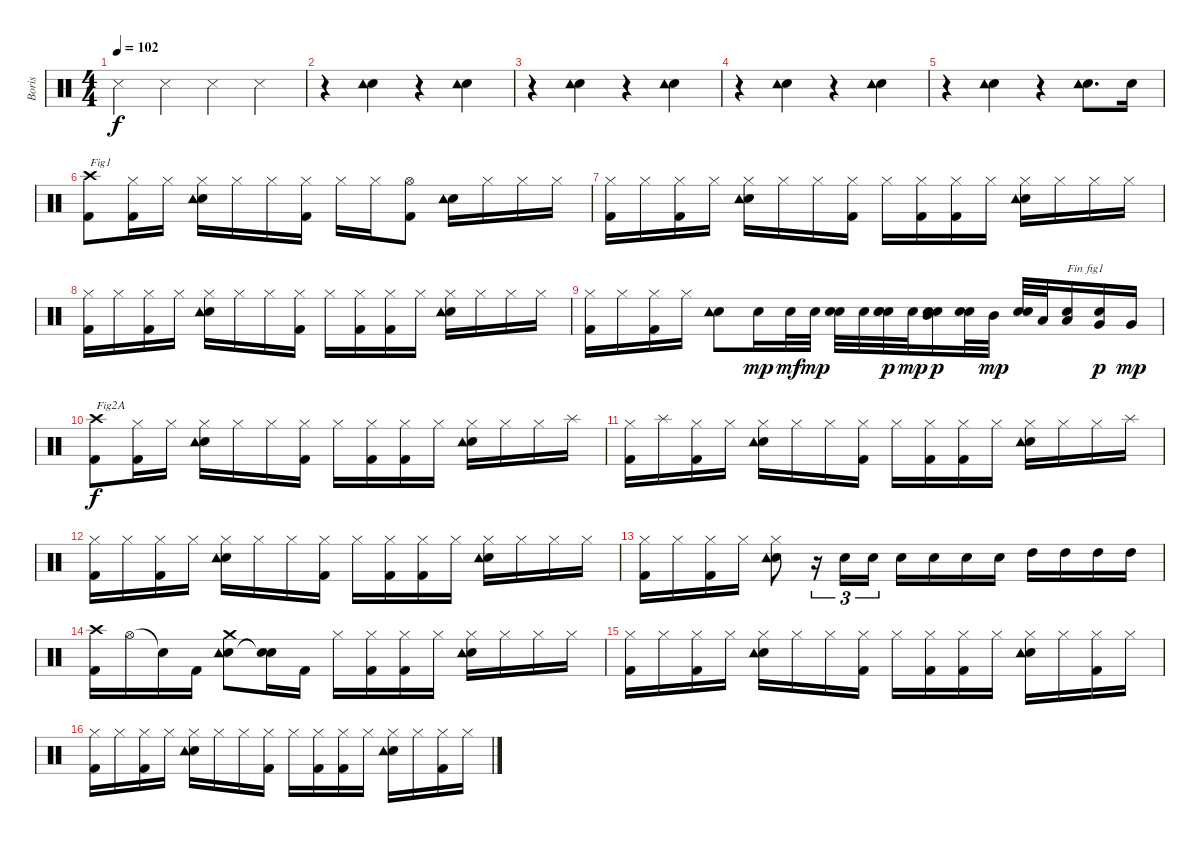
\track ("Boris" "Boris") {instrument percussion}
\staff {score}
\articulation defaults
\ts (4 4)
\tempo 102
\clef neutral
\ks c "Metronome (hit)".4{dy f} "Metronome (hit)".4 "Metronome (hit)".4 "Metronome (hit)".4
|
r.4 ("Electric Snare (hit)" "Tambourine (hit)").4 r.4 ("Electric Snare (hit)" "Tambourine (hit)").4 |
r.4 ("Electric Snare (hit)" "Tambourine (hit)").4 r.4 ("Electric Snare (hit)" "Tambourine (hit)").4 |
r.4 ("Electric Snare (hit)" "Tambourine (hit)").4 r.4 ("Electric Snare (hit)" "Tambourine (hit)").4 |
r.4 ("Electric Snare (hit)" "Tambourine (hit)").4 r.4 ("Electric Snare (hit)" "Tambourine (hit)").8{d} "Electric Snare (hit)".16 |
("Kick (hit) 2" "Crash high (hit)").8{txt "Fig1"} ("Kick (hit) 2" "Hi-Hat (closed)").16 "Hi-Hat (closed)".16 ("Electric Snare (hit)" "Tambourine (hit)" "Hi-Hat (closed)").16 "Hi-Hat (closed)".16 "Hi-Hat (closed)".16 ("Kick (hit) 2" "Hi-Hat (closed)").16 "Hi-Hat (closed)".16 "Hi-Hat (closed)".16 ("Kick (hit) 2" "Hi-Hat (open)").8 ("Electric Snare (hit)" "Tambourine (hit)").16 "Hi-Hat (closed)".16 "Hi-Hat (closed)".16 "Hi-Hat (closed)".16 |
("Kick (hit) 2" "Hi-Hat (closed)").16 "Hi-Hat (closed)".16 ("Kick (hit) 2" "Hi-Hat (closed)").16 "Hi-Hat (closed)".16 ("Electric Snare (hit)" "Tambourine (hit)" "Hi-Hat (closed)").16 "Hi-Hat (closed)".16 "Hi-Hat (closed)".16 ("Kick (hit) 2" "Hi-Hat (closed)").16 "Hi-Hat (closed)".16 ("Kick (hit) 2" "Hi-Hat (closed)").16 ("Kick (hit) 2" "Hi-Hat (closed)").16 "Hi-Hat (closed)".16 ("Electric Snare (hit)" "Tambourine (hit)" "Hi-Hat (closed)").16 "Hi-Hat (closed)".16 "Hi-Hat (closed)".16 "Hi-Hat (closed)".16 |
("Kick (hit) 2" "Hi-Hat (closed)").16 "Hi-Hat (closed)".16 ("Kick (hit) 2" "Hi-Hat (closed)").16 "Hi-Hat (closed)".16 ("Electric Snare (hit)" "Tambourine (hit)" "Hi-Hat (closed)").16 "Hi-Hat (closed)".16 "Hi-Hat (closed)".16 ("Kick (hit) 2" "Hi-Hat (closed)").16 "Hi-Hat (closed)".16 ("Kick (hit) 2" "Hi-Hat (closed)").16 ("Kick (hit) 2" "Hi-Hat (closed)").16 "Hi-Hat (closed)".16 ("Electric Snare (hit)" "Tambourine (hit)" "Hi-Hat (closed)").16 "Hi-Hat (closed)".16 "Hi-Hat (closed)".16 "Hi-Hat (closed)".16 |
("Kick (hit) 2" "Hi-Hat (closed)").16 "Hi-Hat (closed)".16 ("Kick (hit) 2" "Hi-Hat (closed)").16 "Hi-Hat (closed)".16 ("Electric Snare (hit)" "Tambourine (hit)" "Tambourine (hit)").8 "Electric Snare (hit)".16{dy mp} "Electric Snare (hit)".32{dy mf} "Electric Snare (hit)".32{dy mp} ("Electric Snare (hit)" "Electric Snare (hit)").32 "Electric Snare (hit)".32 ("Electric Snare (hit)" "Electric Snare (hit)" "Electric Snare (hit)").32{dy p} "Electric Snare (hit)".32{dy mp} ("Mid Tom (hit)" "Electric Snare (hit)" "Electric Snare (hit)").16{dy p} ("Electric Snare (hit)" "Electric Snare (hit)").32 "Mid Tom (hit)".32{dy mp} ("Electric Snare (hit)" "Electric Snare (hit)").32 "Low Tom (hit)".32 ("Low Tom (hit)" "Electric Snare (hit)").16{txt "Fin fig1"} ("Very Low Tom (hit)" "Electric Snare (hit)").16{dy p} "Very Low Tom (hit)".16{dy mp} |
("Kick (hit) 2" "Crash high (hit)").8{txt "Fig2A" dy f} ("Kick (hit) 2" "Hi-Hat (closed)").16 "Hi-Hat (closed)".16 ("Electric Snare (hit)" "Tambourine (hit)" "Hi-Hat (closed)").16 "Hi-Hat (closed)".16 "Hi-Hat (closed)".16 ("Kick (hit) 2" "Hi-Hat (closed)").16 "Hi-Hat (closed)".16 ("Kick (hit) 2" "Hi-Hat (closed)").16 ("Kick (hit) 2" "Hi-Hat (closed)").16 "Hi-Hat (closed)".16 ("Electric Snare (hit)" "Tambourine (hit)" "Hi-Hat (closed)").16 "Hi-Hat (closed)".16 "Hi-Hat (closed)".16 "Splash (hit)".16 |
("Kick (hit) 2" "Hi-Hat (closed)").16 "Splash (hit)".16 ("Kick (hit) 2" "Hi-Hat (closed)").16 "Hi-Hat (closed)".16 ("Electric Snare (hit)" "Tambourine (hit)" "Hi-Hat (closed)").16 "Hi-Hat (closed)".16 "Hi-Hat (closed)".16 ("Kick (hit) 2" "Hi-Hat (closed)").16 "Hi-Hat (closed)".16 ("Kick (hit) 2" "Hi-Hat (closed)").16 ("Kick (hit) 2" "Hi-Hat (closed)").16 "Hi-Hat (closed)".16 ("Electric Snare (hit)" "Tambourine (hit)" "Hi-Hat (closed)").16 "Hi-Hat (closed)".16 "Hi-Hat (closed)".16 "Splash (hit)".16 |
("Kick (hit) 2" "Hi-Hat (closed)").16 "Hi-Hat (closed)".16 ("Kick (hit) 2" "Hi-Hat (closed)").16 "Hi-Hat (closed)".16 ("Electric Snare (hit)" "Tambourine (hit)" "Hi-Hat (closed)").16 "Hi-Hat (closed)".16 "Hi-Hat (closed)".16 ("Kick (hit) 2" "Hi-Hat (closed)").16 "Hi-Hat (closed)".16 ("Kick (hit) 2" "Hi-Hat (closed)").16 ("Kick (hit) 2" "Hi-Hat (closed)").16 "Hi-Hat (closed)".16 ("Electric Snare (hit)" "Tambourine (hit)" "Hi-Hat (closed)").16 "Hi-Hat (closed)".16 "Hi-Hat (closed)".16 "Hi-Hat (closed)".16 |
("Kick (hit) 2" "Hi-Hat (closed)").16 "Hi-Hat (closed)".16 ("Kick (hit) 2" "Hi-Hat (closed)").16 "Hi-Hat (closed)".16 ("Electric Snare (hit)" "Tambourine (hit)" "Hi-Hat (closed)").8 r.16{tu (3 2)} "Electric Snare (hit)".16{tu (3 2)} "Electric Snare (hit)".16{tu (3 2)} "Electric Snare (hit)".16 "Electric Snare (hit)".16 "Electric Snare (hit)".16 "Electric Snare (hit)".16 "High Tom (hit)".16 "High Tom (hit)".16 "High Tom (hit)".16 "High Tom (hit)".16 |
("Kick (hit) 2" "Crash high (hit)").16 "Hi-Hat (open)".16 "Snare (hit)"{t}.16 "Kick (hit) 2".16 ("Electric Snare (hit)" "Tambourine (hit)" "Crash medium (hit)").8 ("Snare (hit)"{t} "Snare (hit)"{t}).16 "Kick (hit) 2".16 "Hi-Hat (closed)".16 ("Kick (hit) 2" "Hi-Hat (closed)").16 ("Kick (hit) 2" "Hi-Hat (closed)").16 "Hi-Hat (closed)".16 ("Electric Snare (hit)" "Tambourine (hit)" "Hi-Hat (closed)").16 "Hi-Hat (closed)".16 "Hi-Hat (closed)".16 "Hi-Hat (closed)".16 |
("Kick (hit) 2" "Hi-Hat (closed)").16 "Hi-Hat (closed)".16 ("Kick (hit) 2" "Hi-Hat (closed)").16 "Hi-Hat (closed)".16 ("Electric Snare (hit)" "Tambourine (hit)" "Hi-Hat (closed)").16 "Hi-Hat (closed)".16 "Hi-Hat (closed)".16 ("Kick (hit) 2" "Hi-Hat (closed)").16 "Hi-Hat (closed)".16 ("Kick (hit) 2" "Hi-Hat (closed)").16 ("Kick (hit) 2" "Hi-Hat (closed)").16 "Hi-Hat (closed)".16 ("Electric Snare (hit)" "Tambourine (hit)" "Hi-Hat (closed)").16 "Hi-Hat (closed)".16 ("Kick (hit) 2" "Hi-Hat (closed)").16 "Hi-Hat (closed)".16 |
("Kick (hit) 2" "Hi-Hat (closed)").16 "Hi-Hat (closed)".16 ("Kick (hit) 2" "Hi-Hat (closed)").16 "Hi-Hat (closed)".16 ("Electric Snare (hit)" "Tambourine (hit)" "Hi-Hat (closed)").16 "Hi-Hat (closed)".16 "Hi-Hat (closed)".16 ("Kick (hit) 2" "Hi-Hat (closed)").16 "Hi-Hat (closed)".16 ("Kick (hit) 2" "Hi-Hat (closed)").16 ("Kick (hit) 2" "Hi-Hat (closed)").16 "Hi-Hat (closed)".16 ("Electric Snare (hit)" "Tambourine (hit)" "Hi-Hat (closed)").16 "Hi-Hat (closed)".16 ("Kick (hit) 2" "Hi-Hat (closed)").16 "Hi-Hat (closed)".16
